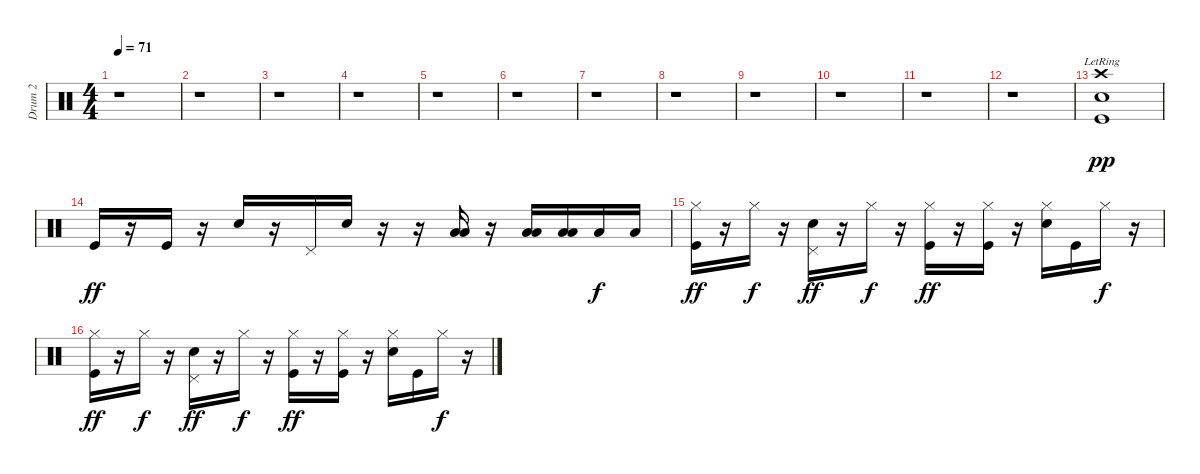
\track ("Drum 2" "Drum 2") {instrument percussion}
\staff {score}
\articulation defaults
\ts (4 4)
\tempo 71
\clef neutral
\ks c
r.1{dy pp} |
r.1 |
r.1 |
r.1 |
r.1 |
r.1 |
r.1 |
r.1 |
r.1 |
r.1 |
r.1 |
r.1 |
("Crash high (hit)"{lr} "Snare (hit) 2" "Kick (hit)").1 |
"Kick (hit)".16{dy ff} r.16 "Kick (hit)".16 r.16 "Snare (hit) 2".16 r.16 "Pedal Hi-Hat (hit)".16 "Snare (hit) 2".16 r.16 r.16 ("Low Tom (hit)" "Low Tom (hit)").16 r.16 ("Low Tom (hit)" "Low Tom (hit)").16 ("Low Tom (hit)" "Low Tom (hit)").16 "Low Tom (hit)".16{dy f} "Low Tom (hit)".16 |
("Hi-Hat (closed)" "Kick (hit)").16{dy ff} r.16 "Hi-Hat (closed)".16{dy f} r.16 ("Pedal Hi-Hat (hit)" "Snare (hit) 2").16{dy ff} r.16 "Hi-Hat (closed)".16{dy f} r.16 ("Hi-Hat (closed)" "Kick (hit)").16{dy ff} r.16 ("Hi-Hat (closed)" "Kick (hit)").16 r.16 ("Hi-Hat (closed)" "Snare (hit) 2").16 "Kick (hit)".16 "Hi-Hat (closed)".16{dy f} r.16 |
("Hi-Hat (closed)" "Kick (hit)").16{dy ff} r.16 "Hi-Hat (closed)".16{dy f} r.16 ("Pedal Hi-Hat (hit)" "Snare (hit) 2").16{dy ff} r.16 "Hi-Hat (closed)".16{dy f} r.16 ("Hi-Hat (closed)" "Kick (hit)").16{dy ff} r.16 ("Hi-Hat (closed)" "Kick (hit)").16 r.16 ("Hi-Hat (closed)" "Snare (hit) 2").16 "Kick (hit)".16 "Hi-Hat (closed)".16{dy f} r.16
